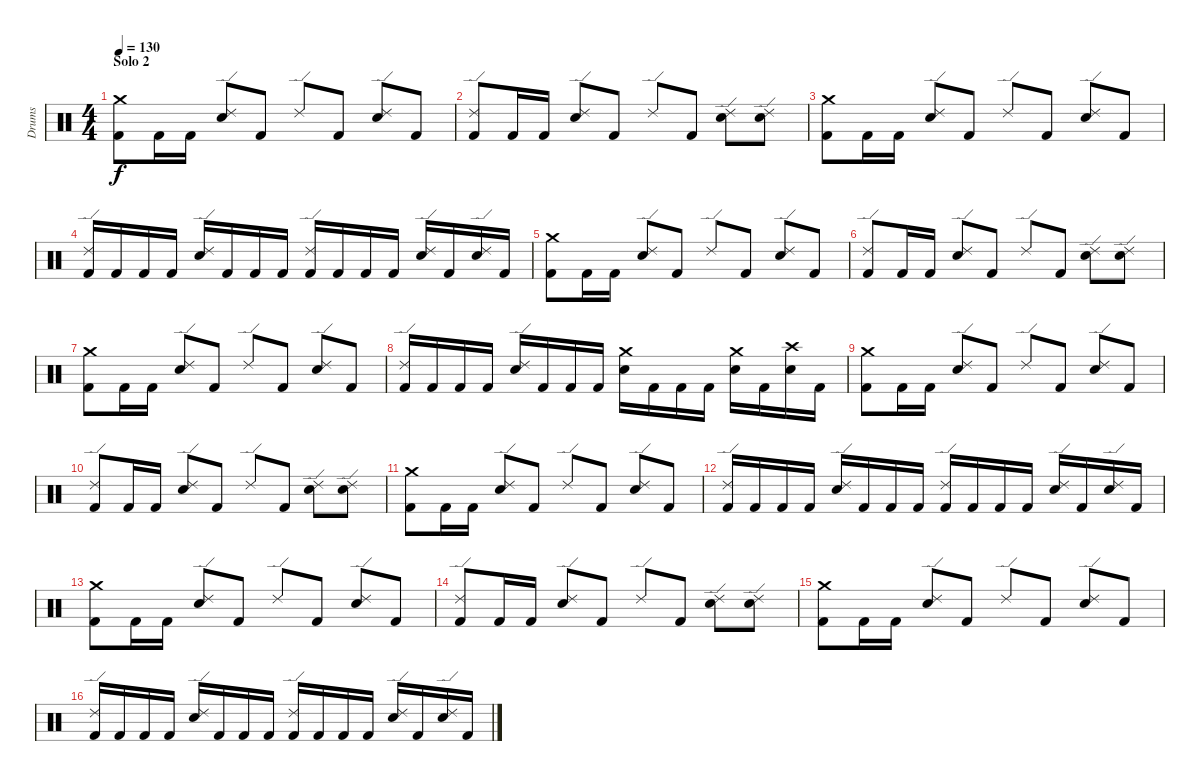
\track ("Drums" "Drums") {instrument percussion}
\staff {score}
\articulation defaults
\ts (4 4)
\section ("" "Solo 2")
\tempo 130
\clef neutral
\ks c
("Crash medium (hit)" "Kick (hit) 2").8{dy f} "Kick (hit) 2".16 "Kick (hit) 2".16 ("Electric Snare (hit)" "Ride (edge) 2").8 "Kick (hit) 2".8 "Ride (edge) 2".8 "Kick (hit) 2".8 ("Ride (edge) 2" "Electric Snare (hit)").8 "Kick (hit) 2".8 |
("Ride (edge) 2" "Kick (hit) 2").8 "Kick (hit) 2".16 "Kick (hit) 2".16 ("Electric Snare (hit)" "Ride (edge) 2").8 "Kick (hit) 2".8 "Ride (edge) 2".8 "Kick (hit) 2".8 ("Electric Snare (hit)" "Ride (edge) 2").8 ("Ride (edge) 2" "Electric Snare (hit)").8 |
("Crash medium (hit)" "Kick (hit) 2").8 "Kick (hit) 2".16 "Kick (hit) 2".16 ("Electric Snare (hit)" "Ride (edge) 2").8 "Kick (hit) 2".8 "Ride (edge) 2".8 "Kick (hit) 2".8 ("Electric Snare (hit)" "Ride (edge) 2").8 "Kick (hit) 2".8 |
("Ride (edge) 2" "Kick (hit) 2").16 "Kick (hit) 2".16 "Kick (hit) 2".16 "Kick (hit) 2".16 ("Electric Snare (hit)" "Ride (edge) 2").16 "Kick (hit) 2".16 "Kick (hit) 2".16 "Kick (hit) 2".16 ("Ride (edge) 2" "Kick (hit) 2").16 "Kick (hit) 2".16 "Kick (hit) 2".16 "Kick (hit) 2".16 ("Electric Snare (hit)" "Ride (edge) 2").16 "Kick (hit) 2".16 ("Electric Snare (hit)" "Ride (edge) 2").16 "Kick (hit) 2".16 |
("Crash medium (hit)" "Kick (hit) 2").8 "Kick (hit) 2".16 "Kick (hit) 2".16 ("Electric Snare (hit)" "Ride (edge) 2").8 "Kick (hit) 2".8 "Ride (edge) 2".8 "Kick (hit) 2".8 ("Ride (edge) 2" "Electric Snare (hit)").8 "Kick (hit) 2".8 |
("Ride (edge) 2" "Kick (hit) 2").8 "Kick (hit) 2".16 "Kick (hit) 2".16 ("Electric Snare (hit)" "Ride (edge) 2").8 "Kick (hit) 2".8 "Ride (edge) 2".8 "Kick (hit) 2".8 ("Electric Snare (hit)" "Ride (edge) 2").8 ("Ride (edge) 2" "Electric Snare (hit)").8 |
("Crash medium (hit)" "Kick (hit) 2").8 "Kick (hit) 2".16 "Kick (hit) 2".16 ("Electric Snare (hit)" "Ride (edge) 2").8 "Kick (hit) 2".8 "Ride (edge) 2".8 "Kick (hit) 2".8 ("Electric Snare (hit)" "Ride (edge) 2").8 "Kick (hit) 2".8 |
("Ride (edge) 2" "Kick (hit) 2").16 "Kick (hit) 2".16 "Kick (hit) 2".16 "Kick (hit) 2".16 ("Electric Snare (hit)" "Ride (edge) 2").16 "Kick (hit) 2".16 "Kick (hit) 2".16 "Kick (hit) 2".16 ("Crash medium (hit)" "Electric Snare (hit)").16 "Kick (hit) 2".16 "Kick (hit) 2".16 "Kick (hit) 2".16 ("Electric Snare (hit)" "Crash medium (hit)").16 "Kick (hit) 2".16 ("Electric Snare (hit)" "Crash high (hit)").16 "Kick (hit) 2".16 |
("Crash medium (hit)" "Kick (hit) 2").8 "Kick (hit) 2".16 "Kick (hit) 2".16 ("Electric Snare (hit)" "Ride (edge) 2").8 "Kick (hit) 2".8 "Ride (edge) 2".8 "Kick (hit) 2".8 ("Ride (edge) 2" "Electric Snare (hit)").8 "Kick (hit) 2".8 |
("Ride (edge) 2" "Kick (hit) 2").8 "Kick (hit) 2".16 "Kick (hit) 2".16 ("Electric Snare (hit)" "Ride (edge) 2").8 "Kick (hit) 2".8 "Ride (edge) 2".8 "Kick (hit) 2".8 ("Electric Snare (hit)" "Ride (edge) 2").8 ("Ride (edge) 2" "Electric Snare (hit)").8 |
("Crash medium (hit)" "Kick (hit) 2").8 "Kick (hit) 2".16 "Kick (hit) 2".16 ("Electric Snare (hit)" "Ride (edge) 2").8 "Kick (hit) 2".8 "Ride (edge) 2".8 "Kick (hit) 2".8 ("Electric Snare (hit)" "Ride (edge) 2").8 "Kick (hit) 2".8 |
("Ride (edge) 2" "Kick (hit) 2").16 "Kick (hit) 2".16 "Kick (hit) 2".16 "Kick (hit) 2".16 ("Electric Snare (hit)" "Ride (edge) 2").16 "Kick (hit) 2".16 "Kick (hit) 2".16 "Kick (hit) 2".16 ("Ride (edge) 2" "Kick (hit) 2").16 "Kick (hit) 2".16 "Kick (hit) 2".16 "Kick (hit) 2".16 ("Electric Snare (hit)" "Ride (edge) 2").16 "Kick (hit) 2".16 ("Electric Snare (hit)" "Ride (edge) 2").16 "Kick (hit) 2".16 |
("Crash medium (hit)" "Kick (hit) 2").8 "Kick (hit) 2".16 "Kick (hit) 2".16 ("Electric Snare (hit)" "Ride (edge) 2").8 "Kick (hit) 2".8 "Ride (edge) 2".8 "Kick (hit) 2".8 ("Ride (edge) 2" "Electric Snare (hit)").8 "Kick (hit) 2".8 |
("Ride (edge) 2" "Kick (hit) 2").8 "Kick (hit) 2".16 "Kick (hit) 2".16 ("Electric Snare (hit)" "Ride (edge) 2").8 "Kick (hit) 2".8 "Ride (edge) 2".8 "Kick (hit) 2".8 ("Electric Snare (hit)" "Ride (edge) 2").8 ("Ride (edge) 2" "Electric Snare (hit)").8 |
("Crash medium (hit)" "Kick (hit) 2").8 "Kick (hit) 2".16 "Kick (hit) 2".16 ("Electric Snare (hit)" "Ride (edge) 2").8 "Kick (hit) 2".8 "Ride (edge) 2".8 "Kick (hit) 2".8 ("Electric Snare (hit)" "Ride (edge) 2").8 "Kick (hit) 2".8 |
("Ride (edge) 2" "Kick (hit) 2").16 "Kick (hit) 2".16 "Kick (hit) 2".16 "Kick (hit) 2".16 ("Electric Snare (hit)" "Ride (edge) 2").16 "Kick (hit) 2".16 "Kick (hit) 2".16 "Kick (hit) 2".16 ("Ride (edge) 2" "Kick (hit) 2").16 "Kick (hit) 2".16 "Kick (hit) 2".16 "Kick (hit) 2".16 ("Electric Snare (hit)" "Ride (edge) 2").16 "Kick (hit) 2".16 ("Electric Snare (hit)" "Ride (edge) 2").16 "Kick (hit) 2".16
